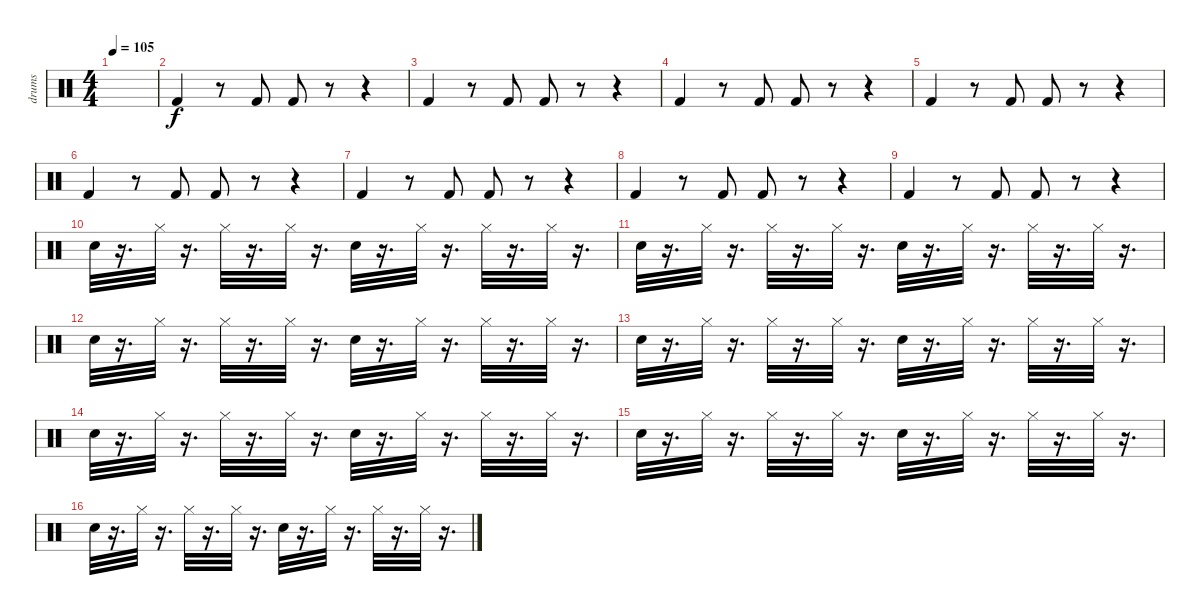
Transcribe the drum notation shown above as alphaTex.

\track ("drums" "drums") {instrument percussion}
\staff {score}
\articulation defaults
\ts (4 4)
\tempo 105
\clef neutral
\ks c
|
"Kick (hit) 2".4 r.8 "Kick (hit) 2".8 "Kick (hit) 2".8 r.8 r.4 |
"Kick (hit) 2".4 r.8 "Kick (hit) 2".8 "Kick (hit) 2".8 r.8 r.4 |
"Kick (hit) 2".4 r.8 "Kick (hit) 2".8 "Kick (hit) 2".8 r.8 r.4 |
"Kick (hit) 2".4 r.8 "Kick (hit) 2".8 "Kick (hit) 2".8 r.8 r.4 |
"Kick (hit) 2".4 r.8 "Kick (hit) 2".8 "Kick (hit) 2".8 r.8 r.4 |
"Kick (hit) 2".4 r.8 "Kick (hit) 2".8 "Kick (hit) 2".8 r.8 r.4 |
"Kick (hit) 2".4 r.8 "Kick (hit) 2".8 "Kick (hit) 2".8 r.8 r.4 |
"Kick (hit) 2".4 r.8 "Kick (hit) 2".8 "Kick (hit) 2".8 r.8 r.4 |
"Snare (hit) 2".32 r.16{d} "Hi-Hat (closed)".32 r.16{d} "Hi-Hat (closed)".32 r.16{d} "Hi-Hat (closed)".32 r.16{d} "Snare (hit) 2".32 r.16{d} "Hi-Hat (closed)".32 r.16{d} "Hi-Hat (closed)".32 r.16{d} "Hi-Hat (closed)".32 r.16{d} |
"Snare (hit) 2".32 r.16{d} "Hi-Hat (closed)".32 r.16{d} "Hi-Hat (closed)".32 r.16{d} "Hi-Hat (closed)".32 r.16{d} "Snare (hit) 2".32 r.16{d} "Hi-Hat (closed)".32 r.16{d} "Hi-Hat (closed)".32 r.16{d} "Hi-Hat (closed)".32 r.16{d} |
"Snare (hit) 2".32 r.16{d} "Hi-Hat (closed)".32 r.16{d} "Hi-Hat (closed)".32 r.16{d} "Hi-Hat (closed)".32 r.16{d} "Snare (hit) 2".32 r.16{d} "Hi-Hat (closed)".32 r.16{d} "Hi-Hat (closed)".32 r.16{d} "Hi-Hat (closed)".32 r.16{d} |
"Snare (hit) 2".32 r.16{d} "Hi-Hat (closed)".32 r.16{d} "Hi-Hat (closed)".32 r.16{d} "Hi-Hat (closed)".32 r.16{d} "Snare (hit) 2".32 r.16{d} "Hi-Hat (closed)".32 r.16{d} "Hi-Hat (closed)".32 r.16{d} "Hi-Hat (closed)".32 r.16{d} |
"Snare (hit) 2".32 r.16{d} "Hi-Hat (closed)".32 r.16{d} "Hi-Hat (closed)".32 r.16{d} "Hi-Hat (closed)".32 r.16{d} "Snare (hit) 2".32 r.16{d} "Hi-Hat (closed)".32 r.16{d} "Hi-Hat (closed)".32 r.16{d} "Hi-Hat (closed)".32 r.16{d} |
"Snare (hit) 2".32 r.16{d} "Hi-Hat (closed)".32 r.16{d} "Hi-Hat (closed)".32 r.16{d} "Hi-Hat (closed)".32 r.16{d} "Snare (hit) 2".32 r.16{d} "Hi-Hat (closed)".32 r.16{d} "Hi-Hat (closed)".32 r.16{d} "Hi-Hat (closed)".32 r.16{d} |
"Snare (hit) 2".32 r.16{d} "Hi-Hat (closed)".32 r.16{d} "Hi-Hat (closed)".32 r.16{d} "Hi-Hat (closed)".32 r.16{d} "Snare (hit) 2".32 r.16{d} "Hi-Hat (closed)".32 r.16{d} "Hi-Hat (closed)".32 r.16{d} "Hi-Hat (closed)".32 r.16{d}
